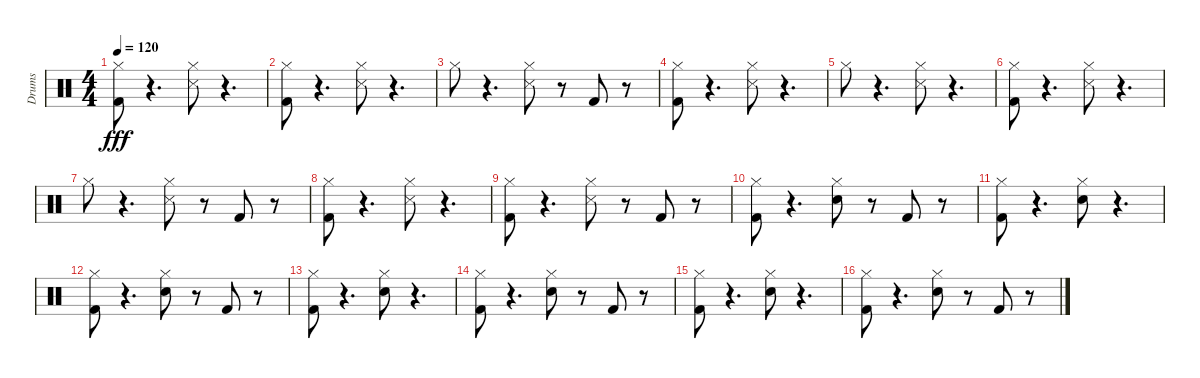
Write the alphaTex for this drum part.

\track ("Drums" "Drums") {instrument percussion}
\staff {score}
\articulation defaults
\ts (4 4)
\tempo 120
\clef neutral
\ks c
("Kick (hit) 2" "Hi-Hat (closed)").8{dy fff} r.4{d} ("Snare (side stick) 3" "Hi-Hat (closed)").8 r.4{d} |
("Hi-Hat (closed)" "Kick (hit) 2").8 r.4{d} ("Hi-Hat (closed)" "Snare (side stick) 3").8 r.4{d} |
"Hi-Hat (closed)".8 r.4{d} ("Snare (side stick) 3" "Hi-Hat (closed)").8 r.8 "Kick (hit) 2".8 r.8 |
("Hi-Hat (closed)" "Kick (hit) 2").8 r.4{d} ("Snare (side stick) 3" "Hi-Hat (closed)").8 r.4{d} |
"Hi-Hat (closed)".8 r.4{d} ("Snare (side stick) 3" "Hi-Hat (closed)").8 r.4{d} |
("Hi-Hat (closed)" "Kick (hit) 2").8 r.4{d} ("Snare (side stick) 3" "Hi-Hat (closed)").8 r.4{d} |
"Hi-Hat (closed)".8 r.4{d} ("Snare (side stick) 3" "Hi-Hat (closed)").8 r.8 "Kick (hit) 2".8 r.8 |
("Hi-Hat (closed)" "Kick (hit) 2").8 r.4{d} ("Snare (side stick) 3" "Hi-Hat (closed)").8 r.4{d} |
("Kick (hit) 2" "Hi-Hat (closed)").8 r.4{d} ("Snare (side stick) 3" "Hi-Hat (closed)").8 r.8 "Kick (hit) 2".8 r.8 |
("Hi-Hat (closed)" "Kick (hit) 2").8 r.4{d} ("Electric Snare (hit)" "Hi-Hat (closed)").8 r.8 "Kick (hit) 2".8 r.8 |
("Kick (hit) 2" "Hi-Hat (closed)").8 r.4{d} ("Electric Snare (hit)" "Hi-Hat (closed)").8 r.4{d} |
("Hi-Hat (closed)" "Kick (hit) 2").8 r.4{d} ("Electric Snare (hit)" "Hi-Hat (closed)").8 r.8 "Kick (hit) 2".8 r.8 |
("Kick (hit) 2" "Hi-Hat (closed)").8 r.4{d} ("Electric Snare (hit)" "Hi-Hat (closed)").8 r.4{d} |
("Hi-Hat (closed)" "Kick (hit) 2").8 r.4{d} ("Electric Snare (hit)" "Hi-Hat (closed)").8 r.8 "Kick (hit) 2".8 r.8 |
("Kick (hit) 2" "Hi-Hat (closed)").8 r.4{d} ("Electric Snare (hit)" "Hi-Hat (closed)").8 r.4{d} |
("Hi-Hat (closed)" "Kick (hit) 2").8 r.4{d} ("Electric Snare (hit)" "Hi-Hat (closed)").8 r.8 "Kick (hit) 2".8 r.8
